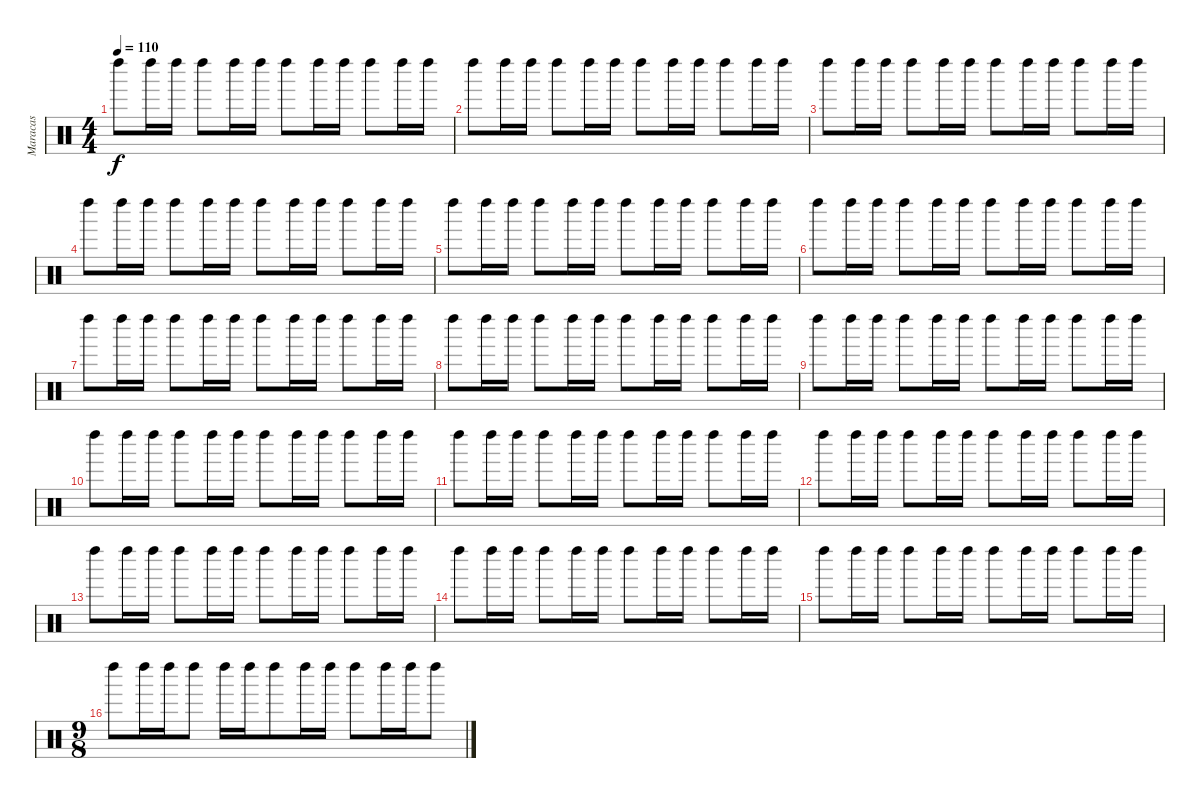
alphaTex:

\track ("Maracas" "Maracas") {instrument percussion}
\staff {score}
\articulation defaults
\ts (4 4)
\tempo 110
\clef neutral
\ks c "Left Maraca (hit)".8{dy f} "Left Maraca (hit)".16 "Left Maraca (hit)".16 "Left Maraca (hit)".8 "Left Maraca (hit)".16 "Left Maraca (hit)".16 "Left Maraca (hit)".8 "Left Maraca (hit)".16 "Left Maraca (hit)".16 "Left Maraca (hit)".8 "Left Maraca (hit)".16 "Left Maraca (hit)".16
|
"Left Maraca (hit)".8 "Left Maraca (hit)".16 "Left Maraca (hit)".16 "Left Maraca (hit)".8 "Left Maraca (hit)".16 "Left Maraca (hit)".16 "Left Maraca (hit)".8 "Left Maraca (hit)".16 "Left Maraca (hit)".16 "Left Maraca (hit)".8 "Left Maraca (hit)".16 "Left Maraca (hit)".16 |
"Left Maraca (hit)".8 "Left Maraca (hit)".16 "Left Maraca (hit)".16 "Left Maraca (hit)".8 "Left Maraca (hit)".16 "Left Maraca (hit)".16 "Left Maraca (hit)".8 "Left Maraca (hit)".16 "Left Maraca (hit)".16 "Left Maraca (hit)".8 "Left Maraca (hit)".16 "Left Maraca (hit)".16 |
"Left Maraca (hit)".8 "Left Maraca (hit)".16 "Left Maraca (hit)".16 "Left Maraca (hit)".8 "Left Maraca (hit)".16 "Left Maraca (hit)".16 "Left Maraca (hit)".8 "Left Maraca (hit)".16 "Left Maraca (hit)".16 "Left Maraca (hit)".8 "Left Maraca (hit)".16 "Left Maraca (hit)".16 |
"Left Maraca (hit)".8 "Left Maraca (hit)".16 "Left Maraca (hit)".16 "Left Maraca (hit)".8 "Left Maraca (hit)".16 "Left Maraca (hit)".16 "Left Maraca (hit)".8 "Left Maraca (hit)".16 "Left Maraca (hit)".16 "Left Maraca (hit)".8 "Left Maraca (hit)".16 "Left Maraca (hit)".16 |
"Left Maraca (hit)".8 "Left Maraca (hit)".16 "Left Maraca (hit)".16 "Left Maraca (hit)".8 "Left Maraca (hit)".16 "Left Maraca (hit)".16 "Left Maraca (hit)".8 "Left Maraca (hit)".16 "Left Maraca (hit)".16 "Left Maraca (hit)".8 "Left Maraca (hit)".16 "Left Maraca (hit)".16 |
"Left Maraca (hit)".8 "Left Maraca (hit)".16 "Left Maraca (hit)".16 "Left Maraca (hit)".8 "Left Maraca (hit)".16 "Left Maraca (hit)".16 "Left Maraca (hit)".8 "Left Maraca (hit)".16 "Left Maraca (hit)".16 "Left Maraca (hit)".8 "Left Maraca (hit)".16 "Left Maraca (hit)".16 |
"Left Maraca (hit)".8 "Left Maraca (hit)".16 "Left Maraca (hit)".16 "Left Maraca (hit)".8 "Left Maraca (hit)".16 "Left Maraca (hit)".16 "Left Maraca (hit)".8 "Left Maraca (hit)".16 "Left Maraca (hit)".16 "Left Maraca (hit)".8 "Left Maraca (hit)".16 "Left Maraca (hit)".16 |
"Left Maraca (hit)".8 "Left Maraca (hit)".16 "Left Maraca (hit)".16 "Left Maraca (hit)".8 "Left Maraca (hit)".16 "Left Maraca (hit)".16 "Left Maraca (hit)".8 "Left Maraca (hit)".16 "Left Maraca (hit)".16 "Left Maraca (hit)".8 "Left Maraca (hit)".16 "Left Maraca (hit)".16 |
"Left Maraca (hit)".8 "Left Maraca (hit)".16 "Left Maraca (hit)".16 "Left Maraca (hit)".8 "Left Maraca (hit)".16 "Left Maraca (hit)".16 "Left Maraca (hit)".8 "Left Maraca (hit)".16 "Left Maraca (hit)".16 "Left Maraca (hit)".8 "Left Maraca (hit)".16 "Left Maraca (hit)".16 |
"Left Maraca (hit)".8 "Left Maraca (hit)".16 "Left Maraca (hit)".16 "Left Maraca (hit)".8 "Left Maraca (hit)".16 "Left Maraca (hit)".16 "Left Maraca (hit)".8 "Left Maraca (hit)".16 "Left Maraca (hit)".16 "Left Maraca (hit)".8 "Left Maraca (hit)".16 "Left Maraca (hit)".16 |
"Left Maraca (hit)".8 "Left Maraca (hit)".16 "Left Maraca (hit)".16 "Left Maraca (hit)".8 "Left Maraca (hit)".16 "Left Maraca (hit)".16 "Left Maraca (hit)".8 "Left Maraca (hit)".16 "Left Maraca (hit)".16 "Left Maraca (hit)".8 "Left Maraca (hit)".16 "Left Maraca (hit)".16 |
"Left Maraca (hit)".8 "Left Maraca (hit)".16 "Left Maraca (hit)".16 "Left Maraca (hit)".8 "Left Maraca (hit)".16 "Left Maraca (hit)".16 "Left Maraca (hit)".8 "Left Maraca (hit)".16 "Left Maraca (hit)".16 "Left Maraca (hit)".8 "Left Maraca (hit)".16 "Left Maraca (hit)".16 |
"Left Maraca (hit)".8 "Left Maraca (hit)".16 "Left Maraca (hit)".16 "Left Maraca (hit)".8 "Left Maraca (hit)".16 "Left Maraca (hit)".16 "Left Maraca (hit)".8 "Left Maraca (hit)".16 "Left Maraca (hit)".16 "Left Maraca (hit)".8 "Left Maraca (hit)".16 "Left Maraca (hit)".16 |
"Left Maraca (hit)".8 "Left Maraca (hit)".16 "Left Maraca (hit)".16 "Left Maraca (hit)".8 "Left Maraca (hit)".16 "Left Maraca (hit)".16 "Left Maraca (hit)".8 "Left Maraca (hit)".16 "Left Maraca (hit)".16 "Left Maraca (hit)".8 "Left Maraca (hit)".16 "Left Maraca (hit)".16 |
\ts (9 8)
"Left Maraca (hit)".8 "Left Maraca (hit)".16 "Left Maraca (hit)".16 "Left Maraca (hit)".8 "Left Maraca (hit)".16 "Left Maraca (hit)".16 "Left Maraca (hit)".8 "Left Maraca (hit)".16 "Left Maraca (hit)".16 "Left Maraca (hit)".8 "Left Maraca (hit)".16 "Left Maraca (hit)".16 "Left Maraca (hit)".8
